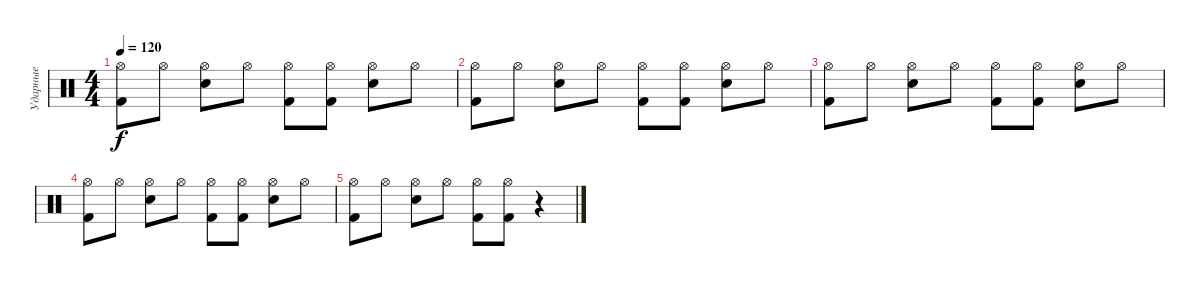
\track ("Ударные" "Ударные") {instrument percussion}
\staff {score}
\articulation defaults
\ts (4 4)
\tempo 120
\clef neutral
\ks c
("Hi-Hat (open)" "Kick (hit) 2").8{dy f} "Hi-Hat (open)".8 ("Hi-Hat (open)" "Snare (hit) 2").8 "Hi-Hat (open)".8 ("Hi-Hat (open)" "Kick (hit) 2").8 ("Hi-Hat (open)" "Kick (hit) 2").8 ("Hi-Hat (open)" "Snare (hit) 2").8 "Hi-Hat (open)".8 |
("Hi-Hat (open)" "Kick (hit) 2").8 "Hi-Hat (open)".8 ("Hi-Hat (open)" "Snare (hit) 2").8 "Hi-Hat (open)".8 ("Hi-Hat (open)" "Kick (hit) 2").8 ("Hi-Hat (open)" "Kick (hit) 2").8 ("Hi-Hat (open)" "Snare (hit) 2").8 "Hi-Hat (open)".8 |
("Hi-Hat (open)" "Kick (hit) 2").8 "Hi-Hat (open)".8 ("Hi-Hat (open)" "Snare (hit) 2").8 "Hi-Hat (open)".8 ("Hi-Hat (open)" "Kick (hit) 2").8 ("Hi-Hat (open)" "Kick (hit) 2").8 ("Hi-Hat (open)" "Snare (hit) 2").8 "Hi-Hat (open)".8 |
("Hi-Hat (open)" "Kick (hit) 2").8 "Hi-Hat (open)".8 ("Hi-Hat (open)" "Snare (hit) 2").8 "Hi-Hat (open)".8 ("Hi-Hat (open)" "Kick (hit) 2").8 ("Hi-Hat (open)" "Kick (hit) 2").8 ("Hi-Hat (open)" "Snare (hit) 2").8 "Hi-Hat (open)".8 |
("Hi-Hat (open)" "Kick (hit) 2").8 "Hi-Hat (open)".8 ("Hi-Hat (open)" "Snare (hit) 2").8 "Hi-Hat (open)".8 ("Hi-Hat (open)" "Kick (hit) 2").8 ("Hi-Hat (open)" "Kick (hit) 2").8 r.4
